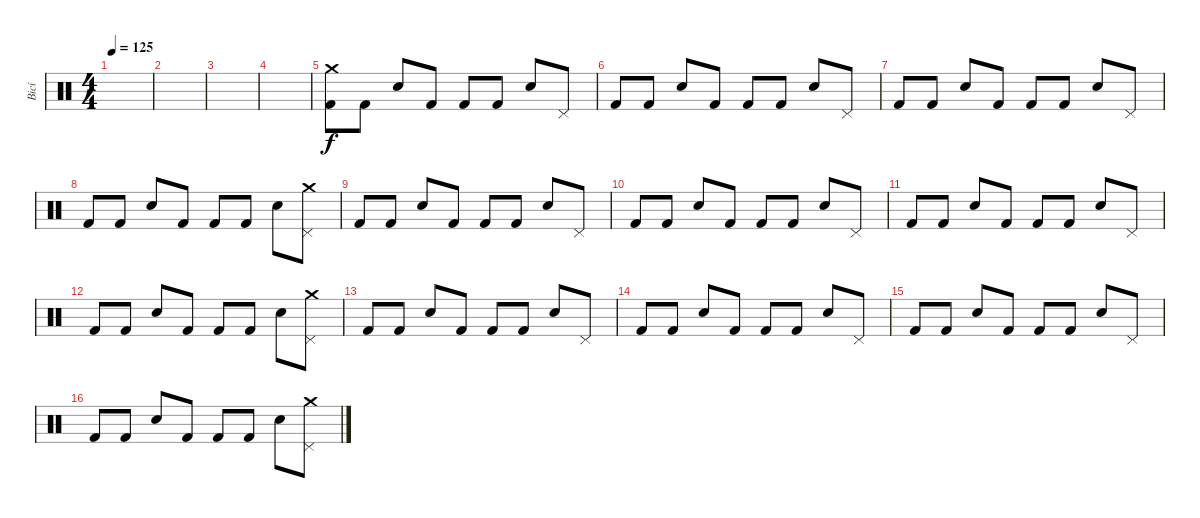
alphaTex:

\track ("Bicí" "Bicí") {instrument percussion}
\staff {score}
\articulation defaults
\ts (4 4)
\tempo 125
\clef neutral
\ks c
|
|
|
|
("Crash medium (hit)" "Kick (hit) 2").8 "Kick (hit) 2".8 "Snare (hit) 2".8 "Kick (hit) 2".8 "Kick (hit) 2".8 "Kick (hit) 2".8 "Snare (hit) 2".8 "Pedal Hi-Hat (hit)".8 |
"Kick (hit) 2".8 "Kick (hit) 2".8 "Snare (hit) 2".8 "Kick (hit) 2".8 "Kick (hit) 2".8 "Kick (hit) 2".8 "Snare (hit) 2".8 "Pedal Hi-Hat (hit)".8 |
"Kick (hit) 2".8 "Kick (hit) 2".8 "Snare (hit) 2".8 "Kick (hit) 2".8 "Kick (hit) 2".8 "Kick (hit) 2".8 "Snare (hit) 2".8 "Pedal Hi-Hat (hit)".8 |
"Kick (hit) 2".8 "Kick (hit) 2".8 "Snare (hit) 2".8 "Kick (hit) 2".8 "Kick (hit) 2".8 "Kick (hit) 2".8 "Snare (hit) 2".8 ("Pedal Hi-Hat (hit)" "Crash medium (hit)").8 |
"Kick (hit) 2".8 "Kick (hit) 2".8 "Snare (hit) 2".8 "Kick (hit) 2".8 "Kick (hit) 2".8 "Kick (hit) 2".8 "Snare (hit) 2".8 "Pedal Hi-Hat (hit)".8 |
"Kick (hit) 2".8 "Kick (hit) 2".8 "Snare (hit) 2".8 "Kick (hit) 2".8 "Kick (hit) 2".8 "Kick (hit) 2".8 "Snare (hit) 2".8 "Pedal Hi-Hat (hit)".8 |
"Kick (hit) 2".8 "Kick (hit) 2".8 "Snare (hit) 2".8 "Kick (hit) 2".8 "Kick (hit) 2".8 "Kick (hit) 2".8 "Snare (hit) 2".8 "Pedal Hi-Hat (hit)".8 |
"Kick (hit) 2".8 "Kick (hit) 2".8 "Snare (hit) 2".8 "Kick (hit) 2".8 "Kick (hit) 2".8 "Kick (hit) 2".8 "Snare (hit) 2".8 ("Pedal Hi-Hat (hit)" "Crash medium (hit)").8 |
"Kick (hit) 2".8 "Kick (hit) 2".8 "Snare (hit) 2".8 "Kick (hit) 2".8 "Kick (hit) 2".8 "Kick (hit) 2".8 "Snare (hit) 2".8 "Pedal Hi-Hat (hit)".8 |
"Kick (hit) 2".8 "Kick (hit) 2".8 "Snare (hit) 2".8 "Kick (hit) 2".8 "Kick (hit) 2".8 "Kick (hit) 2".8 "Snare (hit) 2".8 "Pedal Hi-Hat (hit)".8 |
"Kick (hit) 2".8 "Kick (hit) 2".8 "Snare (hit) 2".8 "Kick (hit) 2".8 "Kick (hit) 2".8 "Kick (hit) 2".8 "Snare (hit) 2".8 "Pedal Hi-Hat (hit)".8 |
"Kick (hit) 2".8 "Kick (hit) 2".8 "Snare (hit) 2".8 "Kick (hit) 2".8 "Kick (hit) 2".8 "Kick (hit) 2".8 "Snare (hit) 2".8 ("Pedal Hi-Hat (hit)" "Crash medium (hit)").8
